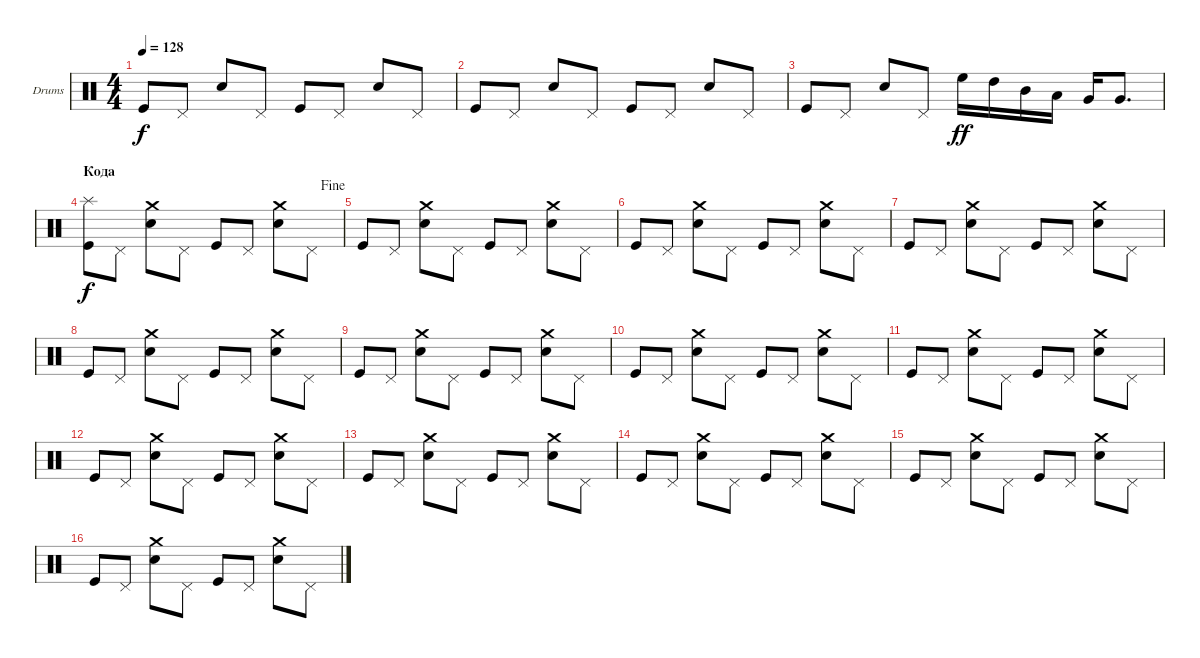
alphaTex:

\defaultSystemsLayout 4
\bracketExtendMode groupsimilarinstruments
\firstSystemTrackNameOrientation horizontal
\otherSystemsTrackNameOrientation horizontal
\track ("Е. Кулаков" "Drums") {instrument percussion}
\staff {score}
\articulation defaults
\ts (4 4)
\tempo 128
\clef neutral
\ks c "Kick (hit)".8{dy f} "Pedal Hi-Hat (hit)".8 "Snare (hit) 2".8 "Pedal Hi-Hat (hit)".8 "Kick (hit)".8 "Pedal Hi-Hat (hit)".8 "Snare (hit) 2".8 "Pedal Hi-Hat (hit)".8
|
"Kick (hit)".8 "Pedal Hi-Hat (hit)".8 "Snare (hit) 2".8 "Pedal Hi-Hat (hit)".8 "Kick (hit)".8 "Pedal Hi-Hat (hit)".8 "Snare (hit) 2".8 "Pedal Hi-Hat (hit)".8 |
"Kick (hit)".8 "Pedal Hi-Hat (hit)".8 "Snare (hit) 2".8 "Pedal Hi-Hat (hit)".8 "High Floor Tom (hit)".16{dy ff} "High Tom (hit)".16 "Mid Tom (hit)".16 "Low Tom (hit)".16 "Very Low Tom (hit)".16 "Very Low Tom (hit)".8{d} |
\section ("" "Кода")
\jump fine
("Kick (hit)" "Splash (hit)").8{dy f} "Pedal Hi-Hat (hit)".8 ("Snare (hit) 2" "Crash medium (hit)").8 "Pedal Hi-Hat (hit)".8 "Kick (hit)".8 "Pedal Hi-Hat (hit)".8 ("Snare (hit) 2" "Crash medium (hit)").8 "Pedal Hi-Hat (hit)".8 |
"Kick (hit)".8 "Pedal Hi-Hat (hit)".8 ("Snare (hit) 2" "Crash medium (hit)").8 "Pedal Hi-Hat (hit)".8 "Kick (hit)".8 "Pedal Hi-Hat (hit)".8 ("Snare (hit) 2" "Crash medium (hit)").8 "Pedal Hi-Hat (hit)".8 |
"Kick (hit)".8 "Pedal Hi-Hat (hit)".8 ("Snare (hit) 2" "Crash medium (hit)").8 "Pedal Hi-Hat (hit)".8 "Kick (hit)".8 "Pedal Hi-Hat (hit)".8 ("Snare (hit) 2" "Crash medium (hit)").8 "Pedal Hi-Hat (hit)".8 |
"Kick (hit)".8 "Pedal Hi-Hat (hit)".8 ("Snare (hit) 2" "Crash medium (hit)").8 "Pedal Hi-Hat (hit)".8 "Kick (hit)".8 "Pedal Hi-Hat (hit)".8 ("Snare (hit) 2" "Crash medium (hit)").8 "Pedal Hi-Hat (hit)".8 |
"Kick (hit)".8 "Pedal Hi-Hat (hit)".8 ("Snare (hit) 2" "Crash medium (hit)").8 "Pedal Hi-Hat (hit)".8 "Kick (hit)".8 "Pedal Hi-Hat (hit)".8 ("Snare (hit) 2" "Crash medium (hit)").8 "Pedal Hi-Hat (hit)".8 |
"Kick (hit)".8 "Pedal Hi-Hat (hit)".8 ("Snare (hit) 2" "Crash medium (hit)").8 "Pedal Hi-Hat (hit)".8 "Kick (hit)".8 "Pedal Hi-Hat (hit)".8 ("Snare (hit) 2" "Crash medium (hit)").8 "Pedal Hi-Hat (hit)".8 |
"Kick (hit)".8 "Pedal Hi-Hat (hit)".8 ("Snare (hit) 2" "Crash medium (hit)").8 "Pedal Hi-Hat (hit)".8 "Kick (hit)".8 "Pedal Hi-Hat (hit)".8 ("Snare (hit) 2" "Crash medium (hit)").8 "Pedal Hi-Hat (hit)".8 |
"Kick (hit)".8 "Pedal Hi-Hat (hit)".8 ("Snare (hit) 2" "Crash medium (hit)").8 "Pedal Hi-Hat (hit)".8 "Kick (hit)".8 "Pedal Hi-Hat (hit)".8 ("Snare (hit) 2" "Crash medium (hit)").8 "Pedal Hi-Hat (hit)".8 |
"Kick (hit)".8 "Pedal Hi-Hat (hit)".8 ("Snare (hit) 2" "Crash medium (hit)").8 "Pedal Hi-Hat (hit)".8 "Kick (hit)".8 "Pedal Hi-Hat (hit)".8 ("Snare (hit) 2" "Crash medium (hit)").8 "Pedal Hi-Hat (hit)".8 |
"Kick (hit)".8 "Pedal Hi-Hat (hit)".8 ("Snare (hit) 2" "Crash medium (hit)").8 "Pedal Hi-Hat (hit)".8 "Kick (hit)".8 "Pedal Hi-Hat (hit)".8 ("Snare (hit) 2" "Crash medium (hit)").8 "Pedal Hi-Hat (hit)".8 |
"Kick (hit)".8 "Pedal Hi-Hat (hit)".8 ("Snare (hit) 2" "Crash medium (hit)").8 "Pedal Hi-Hat (hit)".8 "Kick (hit)".8 "Pedal Hi-Hat (hit)".8 ("Snare (hit) 2" "Crash medium (hit)").8 "Pedal Hi-Hat (hit)".8 |
"Kick (hit)".8 "Pedal Hi-Hat (hit)".8 ("Snare (hit) 2" "Crash medium (hit)").8 "Pedal Hi-Hat (hit)".8 "Kick (hit)".8 "Pedal Hi-Hat (hit)".8 ("Snare (hit) 2" "Crash medium (hit)").8 "Pedal Hi-Hat (hit)".8 |
"Kick (hit)".8 "Pedal Hi-Hat (hit)".8 ("Snare (hit) 2" "Crash medium (hit)").8 "Pedal Hi-Hat (hit)".8 "Kick (hit)".8 "Pedal Hi-Hat (hit)".8 ("Snare (hit) 2" "Crash medium (hit)").8 "Pedal Hi-Hat (hit)".8
